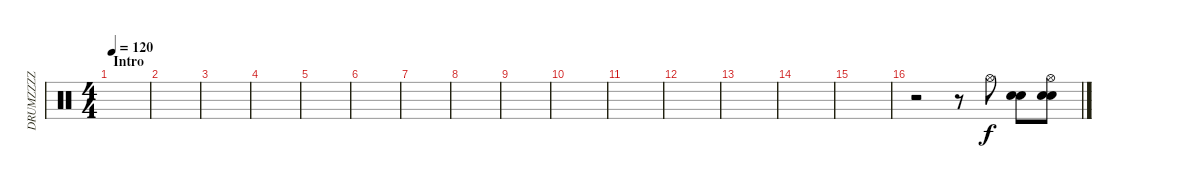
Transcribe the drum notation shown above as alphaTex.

\track ("DRUMZZZZ" "DRUMZZZZ") {instrument percussion}
\staff {score}
\articulation defaults
\ts (4 4)
\section ("" "Intro")
\tempo 120
\clef neutral
\ks c
|
|
|
|
|
|
|
|
|
|
|
|
|
|
|
r.2 r.8 "Hi-Hat (open)".8 ("Snare (hit) 2" "Electric Snare (hit)").8 ("Hi-Hat (open)" "Snare (hit) 2" "Electric Snare (hit)").8
